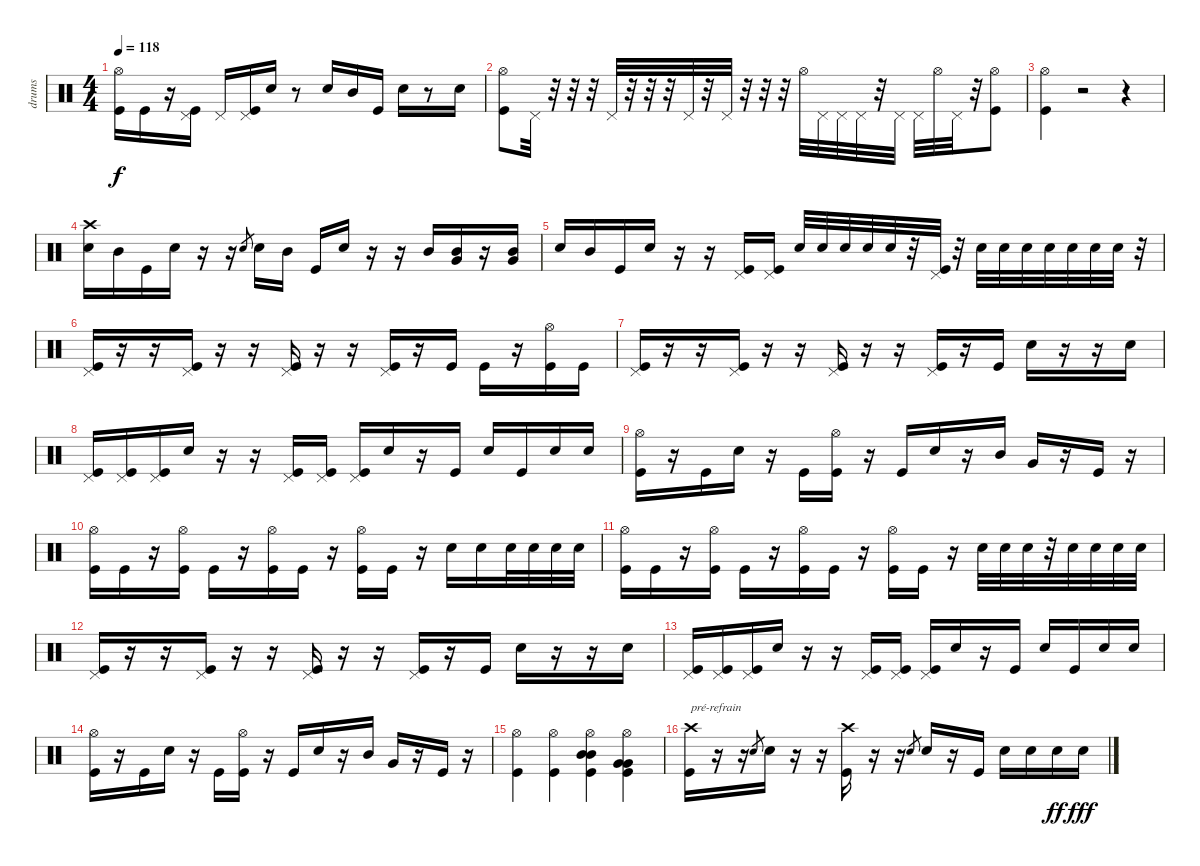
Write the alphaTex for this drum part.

\track ("drums" "drums") {instrument percussion}
\staff {score}
\articulation defaults
\ts (4 4)
\tempo 118
\clef neutral
\ks c
("Hi-Hat (open)" "Kick (hit)").16{dy f} "Kick (hit)".16 r.16 ("Pedal Hi-Hat (hit)" "Kick (hit)").16 "Pedal Hi-Hat (hit)".16 ("Pedal Hi-Hat (hit)" "Kick (hit)").16 "Electric Snare (hit)".16 r.8 "Electric Snare (hit)".16 "Mid Tom (hit)".16 "Kick (hit)".16 "Electric Snare (hit)".16 r.8 "Electric Snare (hit)".16 |
("Hi-Hat (open)" "Kick (hit)").8 "Pedal Hi-Hat (hit)".32 r.32 r.32 r.32 "Pedal Hi-Hat (hit)".32 r.32 r.32 r.32 "Pedal Hi-Hat (hit)".32 r.32 "Pedal Hi-Hat (hit)".32 r.32 r.32 r.32 "Hi-Hat (open)".32 "Pedal Hi-Hat (hit)".32 "Pedal Hi-Hat (hit)".32 "Pedal Hi-Hat (hit)".32 r.32 "Pedal Hi-Hat (hit)".32 "Pedal Hi-Hat (hit)".32 "Hi-Hat (open)".32 "Pedal Hi-Hat (hit)".32 r.32 ("Hi-Hat (open)" "Kick (hit)").8 |
("Hi-Hat (open)" "Kick (hit)").4 r.2 r.4 |
("Crash high (hit)" "Electric Snare (hit)").16 "Mid Tom (hit)".16 "Kick (hit)".16 "Electric Snare (hit)".16 r.16 r.16 "Electric Snare (hit)".8{gr} "Electric Snare (hit)".16 "Mid Tom (hit)".16 "Kick (hit)".16 "Electric Snare (hit)".16 r.16 r.16 "Mid Tom (hit)".16 ("Mid Tom (hit)" "Very Low Tom (hit)").16 r.16 ("Mid Tom (hit)" "Very Low Tom (hit)").16 |
"Electric Snare (hit)".16 "Mid Tom (hit)".16 "Kick (hit)".16 "Electric Snare (hit)".16 r.16 r.16 ("Pedal Hi-Hat (hit)" "Kick (hit)").16 ("Pedal Hi-Hat (hit)" "Kick (hit)").16 "Electric Snare (hit)".32 "Electric Snare (hit)".32 "Electric Snare (hit)".32 "Electric Snare (hit)".32 "Electric Snare (hit)".32 r.32 ("Pedal Hi-Hat (hit)" "Kick (hit)").32 r.32 "Electric Snare (hit)".32 "Electric Snare (hit)".32 "Electric Snare (hit)".32 "Electric Snare (hit)".32 "Electric Snare (hit)".32 "Electric Snare (hit)".32 "Electric Snare (hit)".32 r.32 |
("Pedal Hi-Hat (hit)" "Kick (hit)").16 r.16 r.16 ("Pedal Hi-Hat (hit)" "Kick (hit)").16 r.16 r.16 ("Pedal Hi-Hat (hit)" "Kick (hit)").16 r.16 r.16 ("Pedal Hi-Hat (hit)" "Kick (hit)").16 r.16 "Kick (hit)".16 "Kick (hit)".16 r.16 ("Hi-Hat (open)" "Kick (hit)").16 "Kick (hit)".16 |
("Pedal Hi-Hat (hit)" "Kick (hit)").16 r.16 r.16 ("Pedal Hi-Hat (hit)" "Kick (hit)").16 r.16 r.16 ("Pedal Hi-Hat (hit)" "Kick (hit)").16 r.16 r.16 ("Pedal Hi-Hat (hit)" "Kick (hit)").16 r.16 "Kick (hit)".16 "Electric Snare (hit)".16 r.16 r.16 "Electric Snare (hit)".16 |
("Pedal Hi-Hat (hit)" "Kick (hit)").16 ("Pedal Hi-Hat (hit)" "Kick (hit)").16 ("Pedal Hi-Hat (hit)" "Kick (hit)").16 "Electric Snare (hit)".16 r.16 r.16 ("Pedal Hi-Hat (hit)" "Kick (hit)").16 ("Pedal Hi-Hat (hit)" "Kick (hit)").16 ("Pedal Hi-Hat (hit)" "Kick (hit)").16 "Electric Snare (hit)".16 r.16 "Kick (hit)".16 "Electric Snare (hit)".16 "Kick (hit)".16 "Electric Snare (hit)".16 "Electric Snare (hit)".16 |
("Hi-Hat (open)" "Kick (hit)").16 r.16 "Kick (hit)".16 "Electric Snare (hit)".16 r.16 "Kick (hit)".16 ("Hi-Hat (open)" "Kick (hit)").16 r.16 "Kick (hit)".16 "Electric Snare (hit)".16 r.16 "Mid Tom (hit)".16 "Very Low Tom (hit)".16 r.16 "Kick (hit)".16 r.16 |
("Hi-Hat (open)" "Kick (hit)").16 "Kick (hit)".16 r.16 ("Hi-Hat (open)" "Kick (hit)").16 "Kick (hit)".16 r.16 ("Hi-Hat (open)" "Kick (hit)").16 "Kick (hit)".16 r.16 ("Hi-Hat (open)" "Kick (hit)").16 "Kick (hit)".16 r.16 "Electric Snare (hit)".16 "Electric Snare (hit)".16 "Electric Snare (hit)".32 "Electric Snare (hit)".32 "Electric Snare (hit)".32 "Electric Snare (hit)".32 |
("Hi-Hat (open)" "Kick (hit)").16 "Kick (hit)".16 r.16 ("Hi-Hat (open)" "Kick (hit)").16 "Kick (hit)".16 r.16 ("Hi-Hat (open)" "Kick (hit)").16 "Kick (hit)".16 r.16 ("Hi-Hat (open)" "Kick (hit)").16 "Kick (hit)".16 r.16 "Electric Snare (hit)".32 "Electric Snare (hit)".32 "Electric Snare (hit)".32 r.32 "Electric Snare (hit)".32 "Electric Snare (hit)".32 "Electric Snare (hit)".32 "Electric Snare (hit)".32 |
("Pedal Hi-Hat (hit)" "Kick (hit)").16 r.16 r.16 ("Pedal Hi-Hat (hit)" "Kick (hit)").16 r.16 r.16 ("Pedal Hi-Hat (hit)" "Kick (hit)").16 r.16 r.16 ("Pedal Hi-Hat (hit)" "Kick (hit)").16 r.16 "Kick (hit)".16 "Electric Snare (hit)".16 r.16 r.16 "Electric Snare (hit)".16 |
("Pedal Hi-Hat (hit)" "Kick (hit)").16 ("Pedal Hi-Hat (hit)" "Kick (hit)").16 ("Pedal Hi-Hat (hit)" "Kick (hit)").16 "Electric Snare (hit)".16 r.16 r.16 ("Pedal Hi-Hat (hit)" "Kick (hit)").16 ("Pedal Hi-Hat (hit)" "Kick (hit)").16 ("Pedal Hi-Hat (hit)" "Kick (hit)").16 "Electric Snare (hit)".16 r.16 "Kick (hit)".16 "Electric Snare (hit)".16 "Kick (hit)".16 "Electric Snare (hit)".16 "Electric Snare (hit)".16 |
("Hi-Hat (open)" "Kick (hit)").16 r.16 "Kick (hit)".16 "Electric Snare (hit)".16 r.16 "Kick (hit)".16 ("Hi-Hat (open)" "Kick (hit)").16 r.16 "Kick (hit)".16 "Electric Snare (hit)".16 r.16 "Mid Tom (hit)".16 "Very Low Tom (hit)".16 r.16 "Kick (hit)".16 r.16 |
("Hi-Hat (open)" "Kick (hit)").4 ("Hi-Hat (open)" "Kick (hit)").4 ("Mid Tom (hit)" "Hi-Hat (open)" "Mid Tom (hit)" "Kick (hit)").4 ("Very Low Tom (hit)" "Hi-Hat (open)" "Very Low Tom (hit)" "Kick (hit)").4 |
("Crash high (hit)" "Kick (hit)").16{txt "pré-refrain"} r.16 r.16 "Electric Snare (hit)".8{gr} "Electric Snare (hit)".16 r.16 r.16 ("Crash high (hit)" "Kick (hit)").16 r.16 r.16 "Electric Snare (hit)".8{gr} "Electric Snare (hit)".16 r.16 "Kick (hit)".16 "Electric Snare (hit)".16 "Electric Snare (hit)".16 "Electric Snare (hit)".16{dy ff} "Electric Snare (hit)".16{dy fff}
